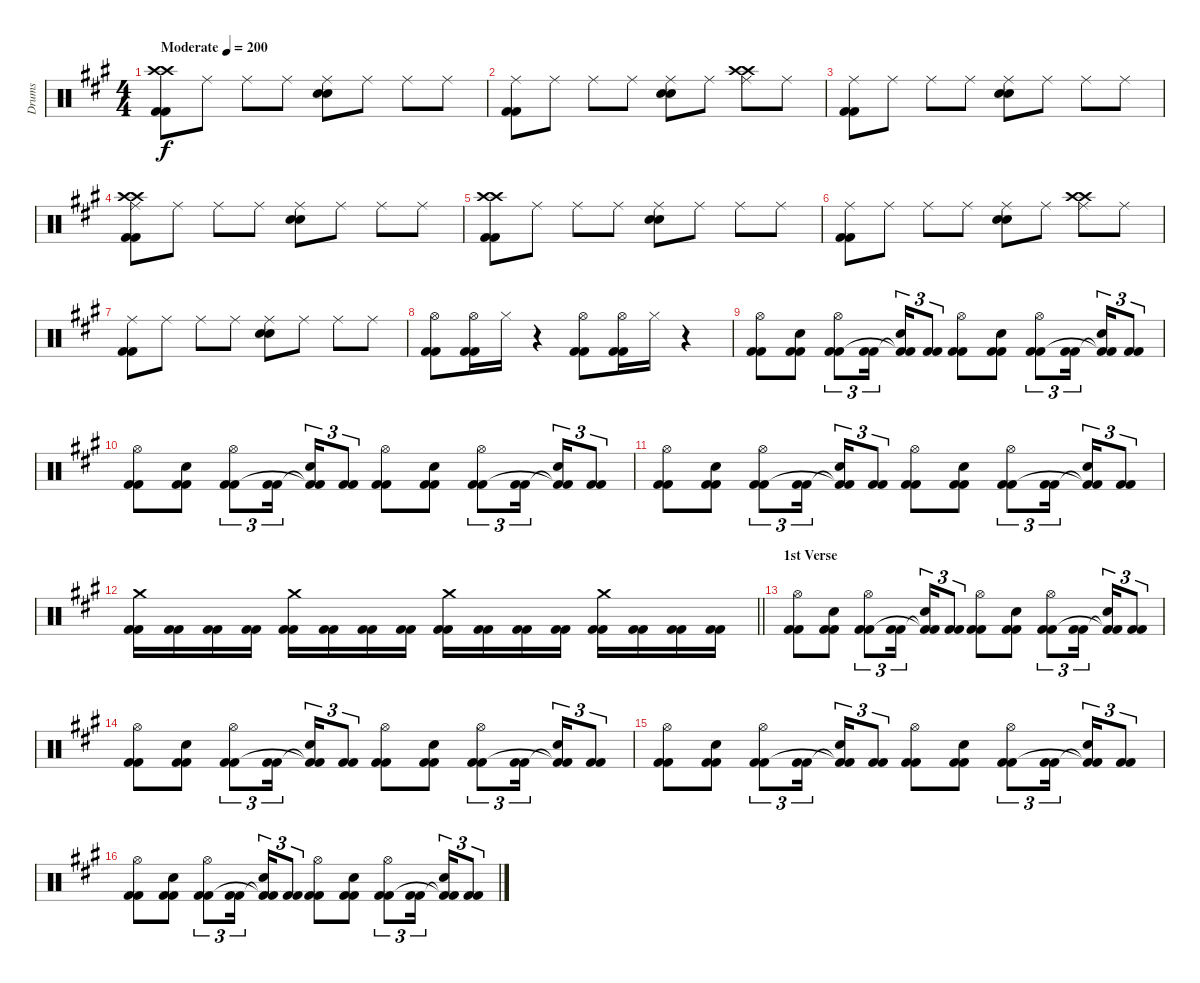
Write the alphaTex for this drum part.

\track ("Drums" "Drums") {instrument percussion}
\staff {score}
\articulation defaults
\ts (4 4)
\tempo (200 "Moderate")
\clef neutral
\ks f#minor
("Crash high (hit)" "Crash high (hit)" "Kick (hit) 2" "Kick (hit) 2").8{dy f} "Ride (middle)".8 "Ride (middle)".8 "Ride (middle)".8 ("Ride (middle)" "Snare (hit) 2" "Snare (hit) 2").8 "Ride (middle)".8 "Ride (middle)".8 "Ride (middle)".8 |
("Ride (middle)" "Kick (hit) 2" "Kick (hit) 2").8 "Ride (middle)".8 "Ride (middle)".8 "Ride (middle)".8 ("Ride (middle)" "Snare (hit) 2" "Snare (hit) 2").8 "Ride (middle)".8 ("Crash high (hit)" "Crash high (hit)" "Ride (middle)").8 "Ride (middle)".8 |
("Ride (middle)" "Kick (hit) 2" "Kick (hit) 2").8 "Ride (middle)".8 "Ride (middle)".8 "Ride (middle)".8 ("Ride (middle)" "Snare (hit) 2" "Snare (hit) 2").8 "Ride (middle)".8 "Ride (middle)".8 "Ride (middle)".8 |
("Crash high (hit)" "Crash high (hit)" "Ride (middle)" "Kick (hit) 2" "Kick (hit) 2").8 "Ride (middle)".8 "Ride (middle)".8 "Ride (middle)".8 ("Ride (middle)" "Snare (hit) 2" "Snare (hit) 2").8 "Ride (middle)".8 "Ride (middle)".8 "Ride (middle)".8 |
("Crash high (hit)" "Crash high (hit)" "Kick (hit) 2" "Kick (hit) 2").8 "Ride (middle)".8 "Ride (middle)".8 "Ride (middle)".8 ("Ride (middle)" "Snare (hit) 2" "Snare (hit) 2").8 "Ride (middle)".8 "Ride (middle)".8 "Ride (middle)".8 |
("Ride (middle)" "Kick (hit) 2" "Kick (hit) 2").8 "Ride (middle)".8 "Ride (middle)".8 "Ride (middle)".8 ("Ride (middle)" "Snare (hit) 2" "Snare (hit) 2").8 "Ride (middle)".8 ("Crash high (hit)" "Crash high (hit)" "Ride (middle)").8 "Ride (middle)".8 |
("Ride (middle)" "Kick (hit) 2" "Kick (hit) 2").8 "Ride (middle)".8 "Ride (middle)".8 "Ride (middle)".8 ("Ride (middle)" "Snare (hit) 2" "Snare (hit) 2").8 "Ride (middle)".8 "Ride (middle)".8 "Ride (middle)".8 |
("Hi-Hat (open)" "Kick (hit) 2" "Kick (hit) 2").8 ("Hi-Hat (open)" "Kick (hit) 2" "Kick (hit) 2").16 "Hi-Hat (closed)".16 r.4 ("Hi-Hat (open)" "Kick (hit) 2" "Kick (hit) 2").8 ("Hi-Hat (open)" "Kick (hit) 2" "Kick (hit) 2").16 "Hi-Hat (closed)".16 r.4 |
("Hi-Hat (open)" "Kick (hit) 2" "Kick (hit) 2").8 ("Snare (hit) 2" "Kick (hit) 2" "Kick (hit) 2").8 ("Hi-Hat (open)" "Kick (hit) 2" "Kick (hit) 2").8{tu (3 2)} ("Kick (hit) 2" "Kick (hit) 2").16{tu (3 2) beam splitsecondary} ("Snare (hit) 2" "Kick (hit) 2"{t} "Kick (hit) 2"{t}).16{tu (3 2)} ("Kick (hit) 2" "Kick (hit) 2").8{tu (3 2)} ("Hi-Hat (open)" "Kick (hit) 2" "Kick (hit) 2").8 ("Snare (hit) 2" "Kick (hit) 2" "Kick (hit) 2").8 ("Hi-Hat (open)" "Kick (hit) 2" "Kick (hit) 2").8{tu (3 2)} ("Kick (hit) 2" "Kick (hit) 2").16{tu (3 2) beam splitsecondary} ("Snare (hit) 2" "Kick (hit) 2"{t} "Kick (hit) 2"{t}).16{tu (3 2)} ("Kick (hit) 2" "Kick (hit) 2").8{tu (3 2)} |
("Hi-Hat (open)" "Kick (hit) 2" "Kick (hit) 2").8 ("Snare (hit) 2" "Kick (hit) 2" "Kick (hit) 2").8 ("Hi-Hat (open)" "Kick (hit) 2" "Kick (hit) 2").8{tu (3 2)} ("Kick (hit) 2" "Kick (hit) 2").16{tu (3 2) beam splitsecondary} ("Snare (hit) 2" "Kick (hit) 2"{t} "Kick (hit) 2"{t}).16{tu (3 2)} ("Kick (hit) 2" "Kick (hit) 2").8{tu (3 2)} ("Hi-Hat (open)" "Kick (hit) 2" "Kick (hit) 2").8 ("Snare (hit) 2" "Kick (hit) 2" "Kick (hit) 2").8 ("Hi-Hat (open)" "Kick (hit) 2" "Kick (hit) 2").8{tu (3 2)} ("Kick (hit) 2" "Kick (hit) 2").16{tu (3 2) beam splitsecondary} ("Snare (hit) 2" "Kick (hit) 2"{t} "Kick (hit) 2"{t}).16{tu (3 2)} ("Kick (hit) 2" "Kick (hit) 2").8{tu (3 2)} |
("Hi-Hat (open)" "Kick (hit) 2" "Kick (hit) 2").8 ("Snare (hit) 2" "Kick (hit) 2" "Kick (hit) 2").8 ("Hi-Hat (open)" "Kick (hit) 2" "Kick (hit) 2").8{tu (3 2)} ("Kick (hit) 2" "Kick (hit) 2").16{tu (3 2) beam splitsecondary} ("Snare (hit) 2" "Kick (hit) 2"{t} "Kick (hit) 2"{t}).16{tu (3 2)} ("Kick (hit) 2" "Kick (hit) 2").8{tu (3 2)} ("Hi-Hat (open)" "Kick (hit) 2" "Kick (hit) 2").8 ("Snare (hit) 2" "Kick (hit) 2" "Kick (hit) 2").8 ("Hi-Hat (open)" "Kick (hit) 2" "Kick (hit) 2").8{tu (3 2)} ("Kick (hit) 2" "Kick (hit) 2").16{tu (3 2) beam splitsecondary} ("Snare (hit) 2" "Kick (hit) 2"{t} "Kick (hit) 2"{t}).16{tu (3 2)} ("Kick (hit) 2" "Kick (hit) 2").8{tu (3 2)} |
\barLineRight lightlight
("Crash medium (hit)" "Kick (hit) 2" "Kick (hit) 2").16 ("Kick (hit) 2" "Kick (hit) 2").16 ("Kick (hit) 2" "Kick (hit) 2").16 ("Kick (hit) 2" "Kick (hit) 2").16 ("Crash medium (hit)" "Kick (hit) 2" "Kick (hit) 2").16 ("Kick (hit) 2" "Kick (hit) 2").16 ("Kick (hit) 2" "Kick (hit) 2").16 ("Kick (hit) 2" "Kick (hit) 2").16 ("Crash medium (hit)" "Kick (hit) 2" "Kick (hit) 2").16 ("Kick (hit) 2" "Kick (hit) 2").16 ("Kick (hit) 2" "Kick (hit) 2").16 ("Kick (hit) 2" "Kick (hit) 2").16 ("Crash medium (hit)" "Kick (hit) 2" "Kick (hit) 2").16 ("Kick (hit) 2" "Kick (hit) 2").16 ("Kick (hit) 2" "Kick (hit) 2").16 ("Kick (hit) 2" "Kick (hit) 2").16 |
\section ("" "1st Verse")
("Hi-Hat (open)" "Kick (hit) 2" "Kick (hit) 2").8 ("Snare (hit) 2" "Kick (hit) 2" "Kick (hit) 2").8 ("Hi-Hat (open)" "Kick (hit) 2" "Kick (hit) 2").8{tu (3 2)} ("Kick (hit) 2" "Kick (hit) 2").16{tu (3 2) beam splitsecondary} ("Snare (hit) 2" "Kick (hit) 2"{t} "Kick (hit) 2"{t}).16{tu (3 2)} ("Kick (hit) 2" "Kick (hit) 2").8{tu (3 2)} ("Hi-Hat (open)" "Kick (hit) 2" "Kick (hit) 2").8 ("Snare (hit) 2" "Kick (hit) 2" "Kick (hit) 2").8 ("Hi-Hat (open)" "Kick (hit) 2" "Kick (hit) 2").8{tu (3 2)} ("Kick (hit) 2" "Kick (hit) 2").16{tu (3 2) beam splitsecondary} ("Snare (hit) 2" "Kick (hit) 2"{t} "Kick (hit) 2"{t}).16{tu (3 2)} ("Kick (hit) 2" "Kick (hit) 2").8{tu (3 2)} |
("Hi-Hat (open)" "Kick (hit) 2" "Kick (hit) 2").8 ("Snare (hit) 2" "Kick (hit) 2" "Kick (hit) 2").8 ("Hi-Hat (open)" "Kick (hit) 2" "Kick (hit) 2").8{tu (3 2)} ("Kick (hit) 2" "Kick (hit) 2").16{tu (3 2) beam splitsecondary} ("Snare (hit) 2" "Kick (hit) 2"{t} "Kick (hit) 2"{t}).16{tu (3 2)} ("Kick (hit) 2" "Kick (hit) 2").8{tu (3 2)} ("Hi-Hat (open)" "Kick (hit) 2" "Kick (hit) 2").8 ("Snare (hit) 2" "Kick (hit) 2" "Kick (hit) 2").8 ("Hi-Hat (open)" "Kick (hit) 2" "Kick (hit) 2").8{tu (3 2)} ("Kick (hit) 2" "Kick (hit) 2").16{tu (3 2) beam splitsecondary} ("Snare (hit) 2" "Kick (hit) 2"{t} "Kick (hit) 2"{t}).16{tu (3 2)} ("Kick (hit) 2" "Kick (hit) 2").8{tu (3 2)} |
("Hi-Hat (open)" "Kick (hit) 2" "Kick (hit) 2").8 ("Snare (hit) 2" "Kick (hit) 2" "Kick (hit) 2").8 ("Hi-Hat (open)" "Kick (hit) 2" "Kick (hit) 2").8{tu (3 2)} ("Kick (hit) 2" "Kick (hit) 2").16{tu (3 2) beam splitsecondary} ("Snare (hit) 2" "Kick (hit) 2"{t} "Kick (hit) 2"{t}).16{tu (3 2)} ("Kick (hit) 2" "Kick (hit) 2").8{tu (3 2)} ("Hi-Hat (open)" "Kick (hit) 2" "Kick (hit) 2").8 ("Snare (hit) 2" "Kick (hit) 2" "Kick (hit) 2").8 ("Hi-Hat (open)" "Kick (hit) 2" "Kick (hit) 2").8{tu (3 2)} ("Kick (hit) 2" "Kick (hit) 2").16{tu (3 2) beam splitsecondary} ("Snare (hit) 2" "Kick (hit) 2"{t} "Kick (hit) 2"{t}).16{tu (3 2)} ("Kick (hit) 2" "Kick (hit) 2").8{tu (3 2)} |
("Hi-Hat (open)" "Kick (hit) 2" "Kick (hit) 2").8 ("Snare (hit) 2" "Kick (hit) 2" "Kick (hit) 2").8 ("Hi-Hat (open)" "Kick (hit) 2" "Kick (hit) 2").8{tu (3 2)} ("Kick (hit) 2" "Kick (hit) 2").16{tu (3 2) beam splitsecondary} ("Snare (hit) 2" "Kick (hit) 2"{t} "Kick (hit) 2"{t}).16{tu (3 2)} ("Kick (hit) 2" "Kick (hit) 2").8{tu (3 2)} ("Hi-Hat (open)" "Kick (hit) 2" "Kick (hit) 2").8 ("Snare (hit) 2" "Kick (hit) 2" "Kick (hit) 2").8 ("Hi-Hat (open)" "Kick (hit) 2" "Kick (hit) 2").8{tu (3 2)} ("Kick (hit) 2" "Kick (hit) 2").16{tu (3 2) beam splitsecondary} ("Snare (hit) 2" "Kick (hit) 2"{t} "Kick (hit) 2"{t}).16{tu (3 2)} ("Kick (hit) 2" "Kick (hit) 2").8{tu (3 2)}
